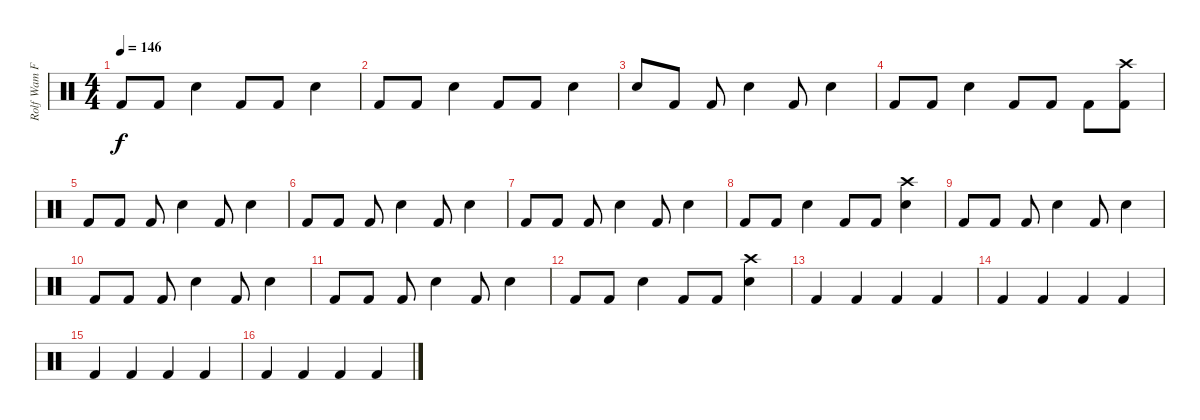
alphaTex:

\track ("Rolf Wam Fjell" "Rolf Wam F") {instrument percussion}
\staff {score}
\articulation defaults
\ts (4 4)
\tempo 146
\clef neutral
\ks c "Kick (hit) 2".8{dy f} "Kick (hit) 2".8 "Electric Snare (hit)".4 "Kick (hit) 2".8 "Kick (hit) 2".8 "Electric Snare (hit)".4
|
"Kick (hit) 2".8 "Kick (hit) 2".8 "Electric Snare (hit)".4 "Kick (hit) 2".8 "Kick (hit) 2".8 "Electric Snare (hit)".4 |
"Electric Snare (hit)".8 "Kick (hit) 2".8 "Kick (hit) 2".8 "Electric Snare (hit)".4 "Kick (hit) 2".8 "Electric Snare (hit)".4 |
"Kick (hit) 2".8 "Kick (hit) 2".8 "Electric Snare (hit)".4 "Kick (hit) 2".8 "Kick (hit) 2".8 "Kick (hit) 2".8 ("Kick (hit) 2" "Crash high (hit)").8 |
"Kick (hit) 2".8 "Kick (hit) 2".8 "Kick (hit) 2".8 "Electric Snare (hit)".4 "Kick (hit) 2".8 "Electric Snare (hit)".4 |
"Kick (hit) 2".8 "Kick (hit) 2".8 "Kick (hit) 2".8 "Electric Snare (hit)".4 "Kick (hit) 2".8 "Electric Snare (hit)".4 |
"Kick (hit) 2".8 "Kick (hit) 2".8 "Kick (hit) 2".8 "Electric Snare (hit)".4 "Kick (hit) 2".8 "Electric Snare (hit)".4 |
"Kick (hit) 2".8 "Kick (hit) 2".8 "Electric Snare (hit)".4 "Kick (hit) 2".8 "Kick (hit) 2".8 ("Electric Snare (hit)" "Crash high (hit)").4 |
"Kick (hit) 2".8 "Kick (hit) 2".8 "Kick (hit) 2".8 "Electric Snare (hit)".4 "Kick (hit) 2".8 "Electric Snare (hit)".4 |
"Kick (hit) 2".8 "Kick (hit) 2".8 "Kick (hit) 2".8 "Electric Snare (hit)".4 "Kick (hit) 2".8 "Electric Snare (hit)".4 |
"Kick (hit) 2".8 "Kick (hit) 2".8 "Kick (hit) 2".8 "Electric Snare (hit)".4 "Kick (hit) 2".8 "Electric Snare (hit)".4 |
"Kick (hit) 2".8 "Kick (hit) 2".8 "Electric Snare (hit)".4 "Kick (hit) 2".8 "Kick (hit) 2".8 ("Electric Snare (hit)" "Crash high (hit)").4 |
"Kick (hit) 2".4 "Kick (hit) 2".4 "Kick (hit) 2".4 "Kick (hit) 2".4 |
"Kick (hit) 2".4 "Kick (hit) 2".4 "Kick (hit) 2".4 "Kick (hit) 2".4 |
"Kick (hit) 2".4 "Kick (hit) 2".4 "Kick (hit) 2".4 "Kick (hit) 2".4 |
"Kick (hit) 2".4 "Kick (hit) 2".4 "Kick (hit) 2".4 "Kick (hit) 2".4
